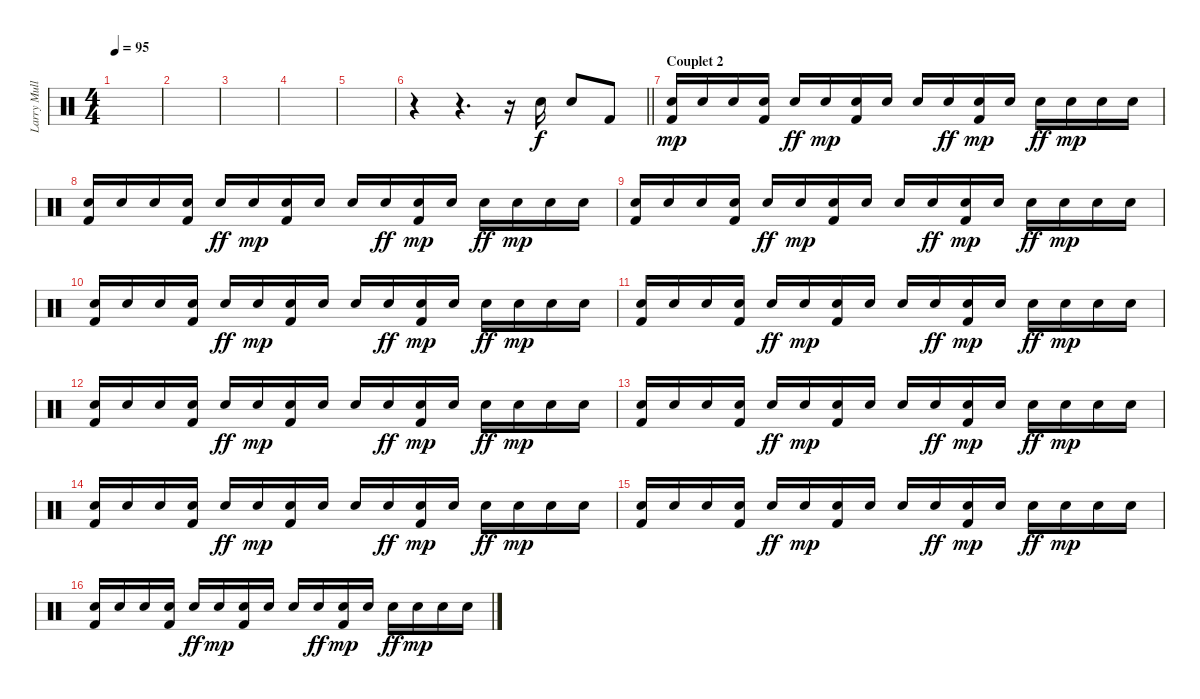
\track ("Larry Mullen Jr" "Larry Mull") {instrument percussion}
\staff {score}
\articulation defaults
\ts (4 4)
\tempo 95
\clef neutral
\ks c
|
|
|
|
|
\barLineRight lightlight
r.4 r.4{d} r.16 "Snare (hit) 2".16 "Snare (hit) 2".8 "Kick (hit) 2".8 |
\section ("" "Couplet 2")
("Snare (hit) 2" "Kick (hit) 2").16{dy mp} "Snare (hit) 2".16 "Snare (hit) 2".16 ("Snare (hit) 2" "Kick (hit) 2").16 "Snare (hit) 2".16{dy ff} "Snare (hit) 2".16{dy mp} ("Snare (hit) 2" "Kick (hit) 2").16 "Snare (hit) 2".16 "Snare (hit) 2".16 "Snare (hit) 2".16{dy ff} ("Snare (hit) 2" "Kick (hit) 2").16{dy mp} "Snare (hit) 2".16 "Snare (hit) 2".16{dy ff} "Snare (hit) 2".16{dy mp} "Snare (hit) 2".16 "Snare (hit) 2".16 |
("Snare (hit) 2" "Kick (hit) 2").16 "Snare (hit) 2".16 "Snare (hit) 2".16 ("Snare (hit) 2" "Kick (hit) 2").16 "Snare (hit) 2".16{dy ff} "Snare (hit) 2".16{dy mp} ("Snare (hit) 2" "Kick (hit) 2").16 "Snare (hit) 2".16 "Snare (hit) 2".16 "Snare (hit) 2".16{dy ff} ("Snare (hit) 2" "Kick (hit) 2").16{dy mp} "Snare (hit) 2".16 "Snare (hit) 2".16{dy ff} "Snare (hit) 2".16{dy mp} "Snare (hit) 2".16 "Snare (hit) 2".16 |
("Snare (hit) 2" "Kick (hit) 2").16 "Snare (hit) 2".16 "Snare (hit) 2".16 ("Snare (hit) 2" "Kick (hit) 2").16 "Snare (hit) 2".16{dy ff} "Snare (hit) 2".16{dy mp} ("Snare (hit) 2" "Kick (hit) 2").16 "Snare (hit) 2".16 "Snare (hit) 2".16 "Snare (hit) 2".16{dy ff} ("Snare (hit) 2" "Kick (hit) 2").16{dy mp} "Snare (hit) 2".16 "Snare (hit) 2".16{dy ff} "Snare (hit) 2".16{dy mp} "Snare (hit) 2".16 "Snare (hit) 2".16 |
("Snare (hit) 2" "Kick (hit) 2").16 "Snare (hit) 2".16 "Snare (hit) 2".16 ("Snare (hit) 2" "Kick (hit) 2").16 "Snare (hit) 2".16{dy ff} "Snare (hit) 2".16{dy mp} ("Snare (hit) 2" "Kick (hit) 2").16 "Snare (hit) 2".16 "Snare (hit) 2".16 "Snare (hit) 2".16{dy ff} ("Snare (hit) 2" "Kick (hit) 2").16{dy mp} "Snare (hit) 2".16 "Snare (hit) 2".16{dy ff} "Snare (hit) 2".16{dy mp} "Snare (hit) 2".16 "Snare (hit) 2".16 |
("Snare (hit) 2" "Kick (hit) 2").16 "Snare (hit) 2".16 "Snare (hit) 2".16 ("Snare (hit) 2" "Kick (hit) 2").16 "Snare (hit) 2".16{dy ff} "Snare (hit) 2".16{dy mp} ("Snare (hit) 2" "Kick (hit) 2").16 "Snare (hit) 2".16 "Snare (hit) 2".16 "Snare (hit) 2".16{dy ff} ("Snare (hit) 2" "Kick (hit) 2").16{dy mp} "Snare (hit) 2".16 "Snare (hit) 2".16{dy ff} "Snare (hit) 2".16{dy mp} "Snare (hit) 2".16 "Snare (hit) 2".16 |
("Snare (hit) 2" "Kick (hit) 2").16 "Snare (hit) 2".16 "Snare (hit) 2".16 ("Snare (hit) 2" "Kick (hit) 2").16 "Snare (hit) 2".16{dy ff} "Snare (hit) 2".16{dy mp} ("Snare (hit) 2" "Kick (hit) 2").16 "Snare (hit) 2".16 "Snare (hit) 2".16 "Snare (hit) 2".16{dy ff} ("Snare (hit) 2" "Kick (hit) 2").16{dy mp} "Snare (hit) 2".16 "Snare (hit) 2".16{dy ff} "Snare (hit) 2".16{dy mp} "Snare (hit) 2".16 "Snare (hit) 2".16 |
("Snare (hit) 2" "Kick (hit) 2").16 "Snare (hit) 2".16 "Snare (hit) 2".16 ("Snare (hit) 2" "Kick (hit) 2").16 "Snare (hit) 2".16{dy ff} "Snare (hit) 2".16{dy mp} ("Snare (hit) 2" "Kick (hit) 2").16 "Snare (hit) 2".16 "Snare (hit) 2".16 "Snare (hit) 2".16{dy ff} ("Snare (hit) 2" "Kick (hit) 2").16{dy mp} "Snare (hit) 2".16 "Snare (hit) 2".16{dy ff} "Snare (hit) 2".16{dy mp} "Snare (hit) 2".16 "Snare (hit) 2".16 |
("Snare (hit) 2" "Kick (hit) 2").16 "Snare (hit) 2".16 "Snare (hit) 2".16 ("Snare (hit) 2" "Kick (hit) 2").16 "Snare (hit) 2".16{dy ff} "Snare (hit) 2".16{dy mp} ("Snare (hit) 2" "Kick (hit) 2").16 "Snare (hit) 2".16 "Snare (hit) 2".16 "Snare (hit) 2".16{dy ff} ("Snare (hit) 2" "Kick (hit) 2").16{dy mp} "Snare (hit) 2".16 "Snare (hit) 2".16{dy ff} "Snare (hit) 2".16{dy mp} "Snare (hit) 2".16 "Snare (hit) 2".16 |
("Snare (hit) 2" "Kick (hit) 2").16 "Snare (hit) 2".16 "Snare (hit) 2".16 ("Snare (hit) 2" "Kick (hit) 2").16 "Snare (hit) 2".16{dy ff} "Snare (hit) 2".16{dy mp} ("Snare (hit) 2" "Kick (hit) 2").16 "Snare (hit) 2".16 "Snare (hit) 2".16 "Snare (hit) 2".16{dy ff} ("Snare (hit) 2" "Kick (hit) 2").16{dy mp} "Snare (hit) 2".16 "Snare (hit) 2".16{dy ff} "Snare (hit) 2".16{dy mp} "Snare (hit) 2".16 "Snare (hit) 2".16 |
("Snare (hit) 2" "Kick (hit) 2").16 "Snare (hit) 2".16 "Snare (hit) 2".16 ("Snare (hit) 2" "Kick (hit) 2").16 "Snare (hit) 2".16{dy ff} "Snare (hit) 2".16{dy mp} ("Snare (hit) 2" "Kick (hit) 2").16 "Snare (hit) 2".16 "Snare (hit) 2".16 "Snare (hit) 2".16{dy ff} ("Snare (hit) 2" "Kick (hit) 2").16{dy mp} "Snare (hit) 2".16 "Snare (hit) 2".16{dy ff} "Snare (hit) 2".16{dy mp} "Snare (hit) 2".16 "Snare (hit) 2".16
